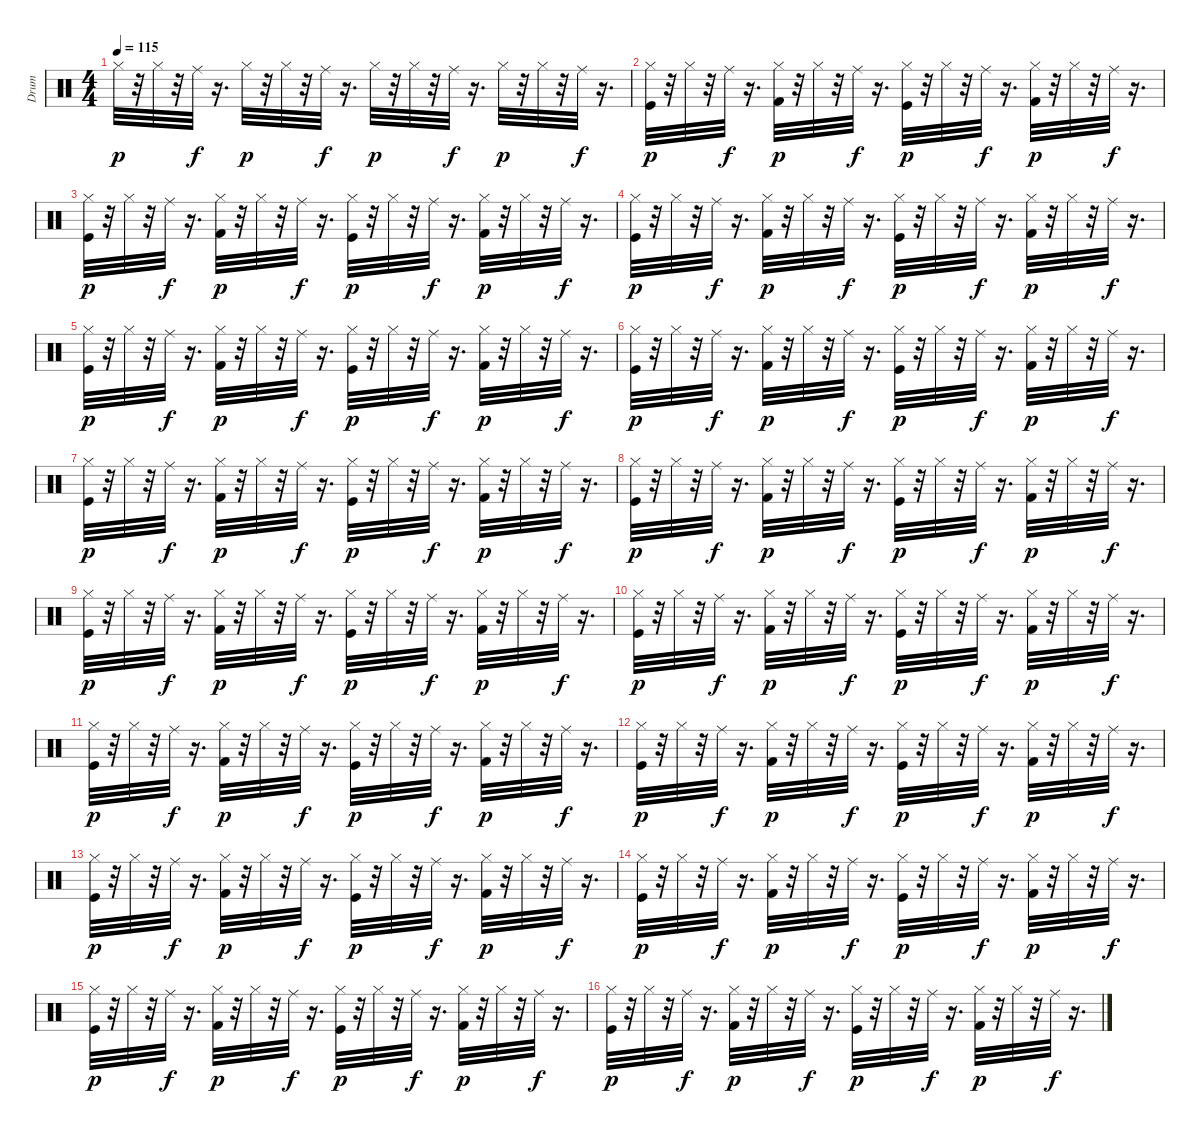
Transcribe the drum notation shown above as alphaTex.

\track ("Drum" "Drum") {instrument percussion}
\staff {score}
\articulation defaults
\ts (4 4)
\tempo 115
\clef neutral
\ks c "Hi-Hat (closed)".32{dy p}
r.32 "Hi-Hat (closed)".32 r.32 "Ride (middle)".32{dy f} r.16{d} "Hi-Hat (closed)".32{dy p} r.32 "Hi-Hat (closed)".32 r.32 "Ride (middle)".32{dy f} r.16{d} "Hi-Hat (closed)".32{dy p} r.32 "Hi-Hat (closed)".32 r.32 "Ride (middle)".32{dy f} r.16{d} "Hi-Hat (closed)".32{dy p} r.32 "Hi-Hat (closed)".32 r.32 "Ride (middle)".32{dy f} r.16{d} |
("Hi-Hat (closed)" "Kick (hit)").32{dy p} r.32 "Hi-Hat (closed)".32 r.32 "Ride (middle)".32{dy f} r.16{d} ("Hi-Hat (closed)" "Kick (hit) 2").32{dy p} r.32 "Hi-Hat (closed)".32 r.32 "Ride (middle)".32{dy f} r.16{d} ("Hi-Hat (closed)" "Kick (hit)").32{dy p} r.32 "Hi-Hat (closed)".32 r.32 "Ride (middle)".32{dy f} r.16{d} ("Hi-Hat (closed)" "Kick (hit) 2").32{dy p} r.32 "Hi-Hat (closed)".32 r.32 "Ride (middle)".32{dy f} r.16{d} |
("Hi-Hat (closed)" "Kick (hit)").32{dy p} r.32 "Hi-Hat (closed)".32 r.32 "Ride (middle)".32{dy f} r.16{d} ("Hi-Hat (closed)" "Kick (hit) 2").32{dy p} r.32 "Hi-Hat (closed)".32 r.32 "Ride (middle)".32{dy f} r.16{d} ("Hi-Hat (closed)" "Kick (hit)").32{dy p} r.32 "Hi-Hat (closed)".32 r.32 "Ride (middle)".32{dy f} r.16{d} ("Hi-Hat (closed)" "Kick (hit) 2").32{dy p} r.32 "Hi-Hat (closed)".32 r.32 "Ride (middle)".32{dy f} r.16{d} |
("Hi-Hat (closed)" "Kick (hit)").32{dy p} r.32 "Hi-Hat (closed)".32 r.32 "Ride (middle)".32{dy f} r.16{d} ("Hi-Hat (closed)" "Kick (hit) 2").32{dy p} r.32 "Hi-Hat (closed)".32 r.32 "Ride (middle)".32{dy f} r.16{d} ("Hi-Hat (closed)" "Kick (hit)").32{dy p} r.32 "Hi-Hat (closed)".32 r.32 "Ride (middle)".32{dy f} r.16{d} ("Hi-Hat (closed)" "Kick (hit) 2").32{dy p} r.32 "Hi-Hat (closed)".32 r.32 "Ride (middle)".32{dy f} r.16{d} |
("Hi-Hat (closed)" "Kick (hit)").32{dy p} r.32 "Hi-Hat (closed)".32 r.32 "Ride (middle)".32{dy f} r.16{d} ("Hi-Hat (closed)" "Kick (hit) 2").32{dy p} r.32 "Hi-Hat (closed)".32 r.32 "Ride (middle)".32{dy f} r.16{d} ("Hi-Hat (closed)" "Kick (hit)").32{dy p} r.32 "Hi-Hat (closed)".32 r.32 "Ride (middle)".32{dy f} r.16{d} ("Hi-Hat (closed)" "Kick (hit) 2").32{dy p} r.32 "Hi-Hat (closed)".32 r.32 "Ride (middle)".32{dy f} r.16{d} |
("Hi-Hat (closed)" "Kick (hit)").32{dy p} r.32 "Hi-Hat (closed)".32 r.32 "Ride (middle)".32{dy f} r.16{d} ("Hi-Hat (closed)" "Kick (hit) 2").32{dy p} r.32 "Hi-Hat (closed)".32 r.32 "Ride (middle)".32{dy f} r.16{d} ("Hi-Hat (closed)" "Kick (hit)").32{dy p} r.32 "Hi-Hat (closed)".32 r.32 "Ride (middle)".32{dy f} r.16{d} ("Hi-Hat (closed)" "Kick (hit) 2").32{dy p} r.32 "Hi-Hat (closed)".32 r.32 "Ride (middle)".32{dy f} r.16{d} |
("Hi-Hat (closed)" "Kick (hit)").32{dy p} r.32 "Hi-Hat (closed)".32 r.32 "Ride (middle)".32{dy f} r.16{d} ("Hi-Hat (closed)" "Kick (hit) 2").32{dy p} r.32 "Hi-Hat (closed)".32 r.32 "Ride (middle)".32{dy f} r.16{d} ("Hi-Hat (closed)" "Kick (hit)").32{dy p} r.32 "Hi-Hat (closed)".32 r.32 "Ride (middle)".32{dy f} r.16{d} ("Hi-Hat (closed)" "Kick (hit) 2").32{dy p} r.32 "Hi-Hat (closed)".32 r.32 "Ride (middle)".32{dy f} r.16{d} |
("Hi-Hat (closed)" "Kick (hit)").32{dy p} r.32 "Hi-Hat (closed)".32 r.32 "Ride (middle)".32{dy f} r.16{d} ("Hi-Hat (closed)" "Kick (hit) 2").32{dy p} r.32 "Hi-Hat (closed)".32 r.32 "Ride (middle)".32{dy f} r.16{d} ("Hi-Hat (closed)" "Kick (hit)").32{dy p} r.32 "Hi-Hat (closed)".32 r.32 "Ride (middle)".32{dy f} r.16{d} ("Hi-Hat (closed)" "Kick (hit) 2").32{dy p} r.32 "Hi-Hat (closed)".32 r.32 "Ride (middle)".32{dy f} r.16{d} |
("Hi-Hat (closed)" "Kick (hit)").32{dy p} r.32 "Hi-Hat (closed)".32 r.32 "Ride (middle)".32{dy f} r.16{d} ("Hi-Hat (closed)" "Kick (hit) 2").32{dy p} r.32 "Hi-Hat (closed)".32 r.32 "Ride (middle)".32{dy f} r.16{d} ("Hi-Hat (closed)" "Kick (hit)").32{dy p} r.32 "Hi-Hat (closed)".32 r.32 "Ride (middle)".32{dy f} r.16{d} ("Hi-Hat (closed)" "Kick (hit) 2").32{dy p} r.32 "Hi-Hat (closed)".32 r.32 "Ride (middle)".32{dy f} r.16{d} |
("Hi-Hat (closed)" "Kick (hit)").32{dy p} r.32 "Hi-Hat (closed)".32 r.32 "Ride (middle)".32{dy f} r.16{d} ("Hi-Hat (closed)" "Kick (hit) 2").32{dy p} r.32 "Hi-Hat (closed)".32 r.32 "Ride (middle)".32{dy f} r.16{d} ("Hi-Hat (closed)" "Kick (hit)").32{dy p} r.32 "Hi-Hat (closed)".32 r.32 "Ride (middle)".32{dy f} r.16{d} ("Hi-Hat (closed)" "Kick (hit) 2").32{dy p} r.32 "Hi-Hat (closed)".32 r.32 "Ride (middle)".32{dy f} r.16{d} |
("Hi-Hat (closed)" "Kick (hit)").32{dy p} r.32 "Hi-Hat (closed)".32 r.32 "Ride (middle)".32{dy f} r.16{d} ("Hi-Hat (closed)" "Kick (hit) 2").32{dy p} r.32 "Hi-Hat (closed)".32 r.32 "Ride (middle)".32{dy f} r.16{d} ("Hi-Hat (closed)" "Kick (hit)").32{dy p} r.32 "Hi-Hat (closed)".32 r.32 "Ride (middle)".32{dy f} r.16{d} ("Hi-Hat (closed)" "Kick (hit) 2").32{dy p} r.32 "Hi-Hat (closed)".32 r.32 "Ride (middle)".32{dy f} r.16{d} |
("Hi-Hat (closed)" "Kick (hit)").32{dy p} r.32 "Hi-Hat (closed)".32 r.32 "Ride (middle)".32{dy f} r.16{d} ("Hi-Hat (closed)" "Kick (hit) 2").32{dy p} r.32 "Hi-Hat (closed)".32 r.32 "Ride (middle)".32{dy f} r.16{d} ("Hi-Hat (closed)" "Kick (hit)").32{dy p} r.32 "Hi-Hat (closed)".32 r.32 "Ride (middle)".32{dy f} r.16{d} ("Hi-Hat (closed)" "Kick (hit) 2").32{dy p} r.32 "Hi-Hat (closed)".32 r.32 "Ride (middle)".32{dy f} r.16{d} |
("Hi-Hat (closed)" "Kick (hit)").32{dy p} r.32 "Hi-Hat (closed)".32 r.32 "Ride (middle)".32{dy f} r.16{d} ("Hi-Hat (closed)" "Kick (hit) 2").32{dy p} r.32 "Hi-Hat (closed)".32 r.32 "Ride (middle)".32{dy f} r.16{d} ("Hi-Hat (closed)" "Kick (hit)").32{dy p} r.32 "Hi-Hat (closed)".32 r.32 "Ride (middle)".32{dy f} r.16{d} ("Hi-Hat (closed)" "Kick (hit) 2").32{dy p} r.32 "Hi-Hat (closed)".32 r.32 "Ride (middle)".32{dy f} r.16{d} |
("Hi-Hat (closed)" "Kick (hit)").32{dy p} r.32 "Hi-Hat (closed)".32 r.32 "Ride (middle)".32{dy f} r.16{d} ("Hi-Hat (closed)" "Kick (hit) 2").32{dy p} r.32 "Hi-Hat (closed)".32 r.32 "Ride (middle)".32{dy f} r.16{d} ("Hi-Hat (closed)" "Kick (hit)").32{dy p} r.32 "Hi-Hat (closed)".32 r.32 "Ride (middle)".32{dy f} r.16{d} ("Hi-Hat (closed)" "Kick (hit) 2").32{dy p} r.32 "Hi-Hat (closed)".32 r.32 "Ride (middle)".32{dy f} r.16{d} |
("Hi-Hat (closed)" "Kick (hit)").32{dy p} r.32 "Hi-Hat (closed)".32 r.32 "Ride (middle)".32{dy f} r.16{d} ("Hi-Hat (closed)" "Kick (hit) 2").32{dy p} r.32 "Hi-Hat (closed)".32 r.32 "Ride (middle)".32{dy f} r.16{d} ("Hi-Hat (closed)" "Kick (hit)").32{dy p} r.32 "Hi-Hat (closed)".32 r.32 "Ride (middle)".32{dy f} r.16{d} ("Hi-Hat (closed)" "Kick (hit) 2").32{dy p} r.32 "Hi-Hat (closed)".32 r.32 "Ride (middle)".32{dy f} r.16{d} |
("Hi-Hat (closed)" "Kick (hit)").32{dy p} r.32 "Hi-Hat (closed)".32 r.32 "Ride (middle)".32{dy f} r.16{d} ("Hi-Hat (closed)" "Kick (hit) 2").32{dy p} r.32 "Hi-Hat (closed)".32 r.32 "Ride (middle)".32{dy f} r.16{d} ("Hi-Hat (closed)" "Kick (hit)").32{dy p} r.32 "Hi-Hat (closed)".32 r.32 "Ride (middle)".32{dy f} r.16{d} ("Hi-Hat (closed)" "Kick (hit) 2").32{dy p} r.32 "Hi-Hat (closed)".32 r.32 "Ride (middle)".32{dy f} r.16{d}
